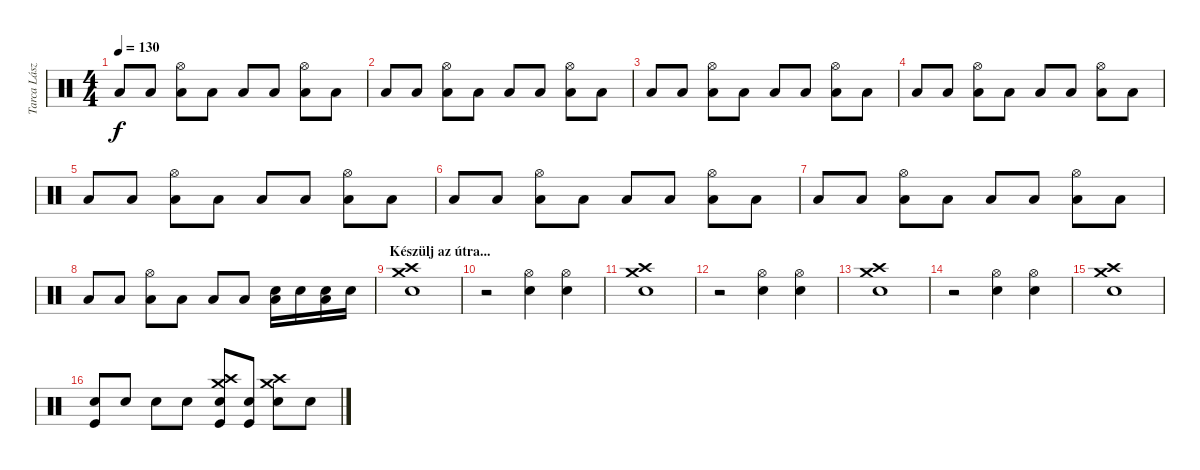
\track ("Tarca László" "Tarca Lász") {instrument percussion}
\staff {score}
\articulation defaults
\ts (4 4)
\tempo 130
\clef neutral
\ks c "Low Tom (hit)".8{dy f} "Low Tom (hit)".8
("Low Tom (hit)" "Hi-Hat (open)").8 "Low Tom (hit)".8 "Low Tom (hit)".8 "Low Tom (hit)".8 ("Low Tom (hit)" "Hi-Hat (open)").8 "Low Tom (hit)".8 |
"Low Tom (hit)".8 "Low Tom (hit)".8 ("Low Tom (hit)" "Hi-Hat (open)").8 "Low Tom (hit)".8 "Low Tom (hit)".8 "Low Tom (hit)".8 ("Low Tom (hit)" "Hi-Hat (open)").8 "Low Tom (hit)".8 |
"Low Tom (hit)".8 "Low Tom (hit)".8 ("Low Tom (hit)" "Hi-Hat (open)").8 "Low Tom (hit)".8 "Low Tom (hit)".8 "Low Tom (hit)".8 ("Low Tom (hit)" "Hi-Hat (open)").8 "Low Tom (hit)".8 |
"Low Tom (hit)".8 "Low Tom (hit)".8 ("Low Tom (hit)" "Hi-Hat (open)").8 "Low Tom (hit)".8 "Low Tom (hit)".8 "Low Tom (hit)".8 ("Low Tom (hit)" "Hi-Hat (open)").8 "Low Tom (hit)".8 |
"Low Tom (hit)".8 "Low Tom (hit)".8 ("Low Tom (hit)" "Hi-Hat (open)").8 "Low Tom (hit)".8 "Low Tom (hit)".8 "Low Tom (hit)".8 ("Low Tom (hit)" "Hi-Hat (open)").8 "Low Tom (hit)".8 |
"Low Tom (hit)".8 "Low Tom (hit)".8 ("Low Tom (hit)" "Hi-Hat (open)").8 "Low Tom (hit)".8 "Low Tom (hit)".8 "Low Tom (hit)".8 ("Low Tom (hit)" "Hi-Hat (open)").8 "Low Tom (hit)".8 |
"Low Tom (hit)".8 "Low Tom (hit)".8 ("Low Tom (hit)" "Hi-Hat (open)").8 "Low Tom (hit)".8 "Low Tom (hit)".8 "Low Tom (hit)".8 ("Low Tom (hit)" "Hi-Hat (open)").8 "Low Tom (hit)".8 |
"Low Tom (hit)".8 "Low Tom (hit)".8 ("Low Tom (hit)" "Hi-Hat (open)").8 "Low Tom (hit)".8 "Low Tom (hit)".8 "Low Tom (hit)".8 ("Snare (hit) 2" "Low Tom (hit)").16 "Snare (hit) 2".16 ("Snare (hit) 2" "Low Tom (hit)").16 "Snare (hit) 2".16 |
\section ("" "Készülj az útra...")
("Crash high (hit)" "Crash medium (hit)" "Snare (hit) 2").1 |
r.2 ("Hi-Hat (open)" "Snare (hit) 2").4 ("Hi-Hat (open)" "Snare (hit) 2").4 |
("Crash high (hit)" "Crash medium (hit)" "Snare (hit) 2").1 |
r.2 ("Hi-Hat (open)" "Snare (hit) 2").4 ("Hi-Hat (open)" "Snare (hit) 2").4 |
("Crash high (hit)" "Crash medium (hit)" "Snare (hit) 2").1 |
r.2 ("Hi-Hat (open)" "Snare (hit) 2").4 ("Hi-Hat (open)" "Snare (hit) 2").4 |
("Crash high (hit)" "Crash medium (hit)" "Snare (hit) 2").1 |
("Snare (hit) 2" "Kick (hit)").8 "Snare (hit) 2".8 "Snare (hit) 2".8 "Snare (hit) 2".8 ("Snare (hit) 2" "Crash high (hit)" "Crash medium (hit)" "Kick (hit)").8 ("Snare (hit) 2" "Kick (hit)").8 ("Snare (hit) 2" "Crash high (hit)" "Crash medium (hit)").8 "Snare (hit) 2".8
